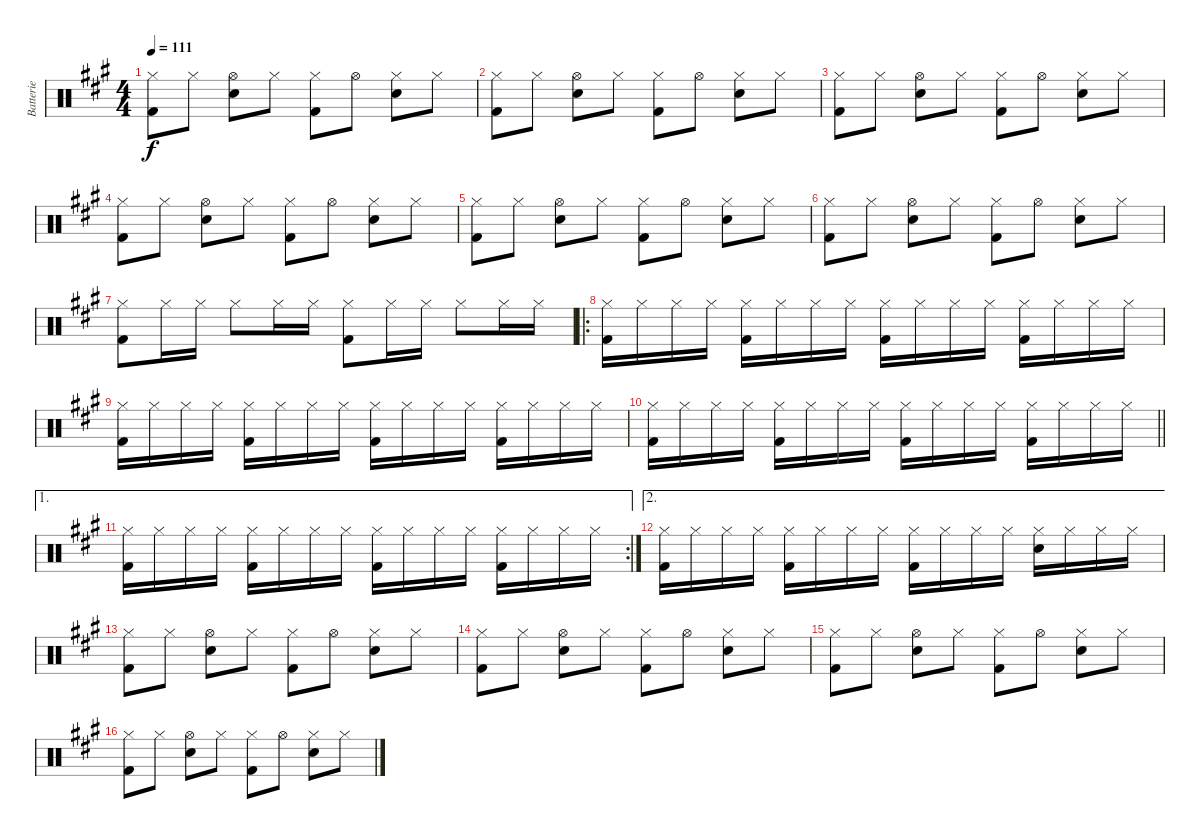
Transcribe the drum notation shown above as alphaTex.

\track ("Batterie" "Batterie") {instrument percussion}
\staff {score}
\articulation defaults
\ts (4 4)
\tempo 111
\clef neutral
\ks a
("Hi-Hat (closed)" "Kick (hit) 2").8{dy f} "Hi-Hat (closed)".8 ("Hi-Hat (open)" "Snare (hit) 2").8 "Hi-Hat (closed)".8 ("Hi-Hat (closed)" "Kick (hit) 2").8 "Hi-Hat (open)".8 ("Hi-Hat (closed)" "Snare (hit) 2").8 "Hi-Hat (closed)".8 |
("Hi-Hat (closed)" "Kick (hit) 2").8 "Hi-Hat (closed)".8 ("Hi-Hat (open)" "Snare (hit) 2").8 "Hi-Hat (closed)".8 ("Hi-Hat (closed)" "Kick (hit) 2").8 "Hi-Hat (open)".8 ("Hi-Hat (closed)" "Snare (hit) 2").8 "Hi-Hat (closed)".8 |
("Hi-Hat (closed)" "Kick (hit) 2").8 "Hi-Hat (closed)".8 ("Hi-Hat (open)" "Snare (hit) 2").8 "Hi-Hat (closed)".8 ("Hi-Hat (closed)" "Kick (hit) 2").8 "Hi-Hat (open)".8 ("Hi-Hat (closed)" "Snare (hit) 2").8 "Hi-Hat (closed)".8 |
("Hi-Hat (closed)" "Kick (hit) 2").8 "Hi-Hat (closed)".8 ("Hi-Hat (open)" "Snare (hit) 2").8 "Hi-Hat (closed)".8 ("Hi-Hat (closed)" "Kick (hit) 2").8 "Hi-Hat (open)".8 ("Hi-Hat (closed)" "Snare (hit) 2").8 "Hi-Hat (closed)".8 |
("Hi-Hat (closed)" "Kick (hit) 2").8 "Hi-Hat (closed)".8 ("Hi-Hat (open)" "Snare (hit) 2").8 "Hi-Hat (closed)".8 ("Hi-Hat (closed)" "Kick (hit) 2").8 "Hi-Hat (open)".8 ("Hi-Hat (closed)" "Snare (hit) 2").8 "Hi-Hat (closed)".8 |
("Hi-Hat (closed)" "Kick (hit) 2").8 "Hi-Hat (closed)".8 ("Hi-Hat (open)" "Snare (hit) 2").8 "Hi-Hat (closed)".8 ("Hi-Hat (closed)" "Kick (hit) 2").8 "Hi-Hat (open)".8 ("Hi-Hat (closed)" "Snare (hit) 2").8 "Hi-Hat (closed)".8 |
("Hi-Hat (closed)" "Kick (hit) 2").8 "Hi-Hat (closed)".16 "Hi-Hat (closed)".16 "Hi-Hat (closed)".8 "Hi-Hat (closed)".16 "Hi-Hat (closed)".16 ("Hi-Hat (closed)" "Kick (hit) 2").8 "Hi-Hat (closed)".16 "Hi-Hat (closed)".16 "Hi-Hat (closed)".8 "Hi-Hat (closed)".16 "Hi-Hat (closed)".16 |
\ro
("Hi-Hat (closed)" "Kick (hit) 2").16 "Hi-Hat (closed)".16 "Hi-Hat (closed)".16 "Hi-Hat (closed)".16 ("Hi-Hat (closed)" "Kick (hit) 2").16 "Hi-Hat (closed)".16 "Hi-Hat (closed)".16 "Hi-Hat (closed)".16 ("Hi-Hat (closed)" "Kick (hit) 2").16 "Hi-Hat (closed)".16 "Hi-Hat (closed)".16 "Hi-Hat (closed)".16 ("Hi-Hat (closed)" "Kick (hit) 2").16 "Hi-Hat (closed)".16 "Hi-Hat (closed)".16 "Hi-Hat (closed)".16 |
("Hi-Hat (closed)" "Kick (hit) 2").16 "Hi-Hat (closed)".16 "Hi-Hat (closed)".16 "Hi-Hat (closed)".16 ("Hi-Hat (closed)" "Kick (hit) 2").16 "Hi-Hat (closed)".16 "Hi-Hat (closed)".16 "Hi-Hat (closed)".16 ("Hi-Hat (closed)" "Kick (hit) 2").16 "Hi-Hat (closed)".16 "Hi-Hat (closed)".16 "Hi-Hat (closed)".16 ("Hi-Hat (closed)" "Kick (hit) 2").16 "Hi-Hat (closed)".16 "Hi-Hat (closed)".16 "Hi-Hat (closed)".16 |
\barLineRight lightlight
("Hi-Hat (closed)" "Kick (hit) 2").16 "Hi-Hat (closed)".16 "Hi-Hat (closed)".16 "Hi-Hat (closed)".16 ("Hi-Hat (closed)" "Kick (hit) 2").16 "Hi-Hat (closed)".16 "Hi-Hat (closed)".16 "Hi-Hat (closed)".16 ("Hi-Hat (closed)" "Kick (hit) 2").16 "Hi-Hat (closed)".16 "Hi-Hat (closed)".16 "Hi-Hat (closed)".16 ("Hi-Hat (closed)" "Kick (hit) 2").16 "Hi-Hat (closed)".16 "Hi-Hat (closed)".16 "Hi-Hat (closed)".16 |
\ae 1
\rc 2
("Hi-Hat (closed)" "Kick (hit) 2").16 "Hi-Hat (closed)".16 "Hi-Hat (closed)".16 "Hi-Hat (closed)".16 ("Hi-Hat (closed)" "Kick (hit) 2").16 "Hi-Hat (closed)".16 "Hi-Hat (closed)".16 "Hi-Hat (closed)".16 ("Hi-Hat (closed)" "Kick (hit) 2").16 "Hi-Hat (closed)".16 "Hi-Hat (closed)".16 "Hi-Hat (closed)".16 ("Hi-Hat (closed)" "Kick (hit) 2").16 "Hi-Hat (closed)".16 "Hi-Hat (closed)".16 "Hi-Hat (closed)".16 |
\ae 2
("Hi-Hat (closed)" "Kick (hit) 2").16 "Hi-Hat (closed)".16 "Hi-Hat (closed)".16 "Hi-Hat (closed)".16 ("Hi-Hat (closed)" "Kick (hit) 2").16 "Hi-Hat (closed)".16 "Hi-Hat (closed)".16 "Hi-Hat (closed)".16 ("Hi-Hat (closed)" "Kick (hit) 2").16 "Hi-Hat (closed)".16 "Hi-Hat (closed)".16 "Hi-Hat (closed)".16 ("Hi-Hat (closed)" "Snare (hit) 2").16 "Hi-Hat (closed)".16 "Hi-Hat (closed)".16 "Hi-Hat (closed)".16 |
("Hi-Hat (closed)" "Kick (hit) 2").8 "Hi-Hat (closed)".8 ("Hi-Hat (open)" "Snare (hit) 2").8 "Hi-Hat (closed)".8 ("Hi-Hat (closed)" "Kick (hit) 2").8 "Hi-Hat (open)".8 ("Hi-Hat (closed)" "Snare (hit) 2").8 "Hi-Hat (closed)".8 |
("Hi-Hat (closed)" "Kick (hit) 2").8 "Hi-Hat (closed)".8 ("Hi-Hat (open)" "Snare (hit) 2").8 "Hi-Hat (closed)".8 ("Hi-Hat (closed)" "Kick (hit) 2").8 "Hi-Hat (open)".8 ("Hi-Hat (closed)" "Snare (hit) 2").8 "Hi-Hat (closed)".8 |
("Hi-Hat (closed)" "Kick (hit) 2").8 "Hi-Hat (closed)".8 ("Hi-Hat (open)" "Snare (hit) 2").8 "Hi-Hat (closed)".8 ("Hi-Hat (closed)" "Kick (hit) 2").8 "Hi-Hat (open)".8 ("Hi-Hat (closed)" "Snare (hit) 2").8 "Hi-Hat (closed)".8 |
("Hi-Hat (closed)" "Kick (hit) 2").8 "Hi-Hat (closed)".8 ("Hi-Hat (open)" "Snare (hit) 2").8 "Hi-Hat (closed)".8 ("Hi-Hat (closed)" "Kick (hit) 2").8 "Hi-Hat (open)".8 ("Hi-Hat (closed)" "Snare (hit) 2").8 "Hi-Hat (closed)".8
